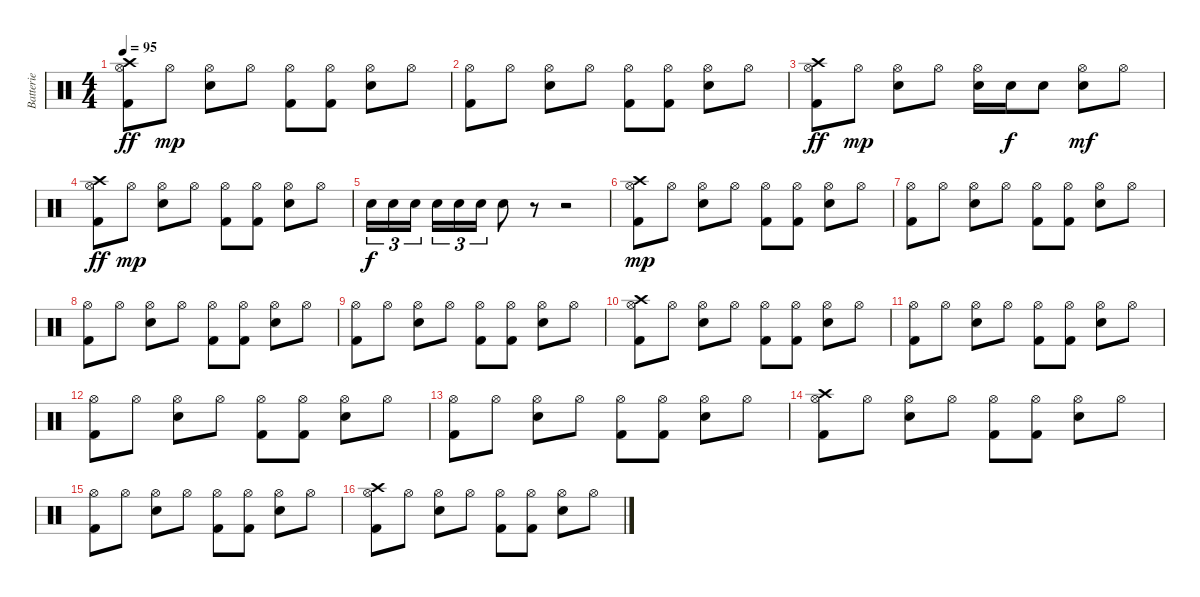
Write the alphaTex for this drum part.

\track ("Batterie" "Batterie") {instrument percussion}
\staff {score}
\articulation defaults
\ts (4 4)
\tempo 95
\clef neutral
\ks c
("Hi-Hat (open)" "Kick (hit) 2" "Crash high (hit)").8{dy ff} "Hi-Hat (open)".8{dy mp} ("Hi-Hat (open)" "Electric Snare (hit)").8 "Hi-Hat (open)".8 ("Hi-Hat (open)" "Kick (hit) 2").8 ("Hi-Hat (open)" "Kick (hit) 2").8 ("Hi-Hat (open)" "Electric Snare (hit)").8 "Hi-Hat (open)".8 |
("Hi-Hat (open)" "Kick (hit) 2").8 "Hi-Hat (open)".8 ("Hi-Hat (open)" "Electric Snare (hit)").8 "Hi-Hat (open)".8 ("Hi-Hat (open)" "Kick (hit) 2").8 ("Hi-Hat (open)" "Kick (hit) 2").8 ("Hi-Hat (open)" "Electric Snare (hit)").8 "Hi-Hat (open)".8 |
("Hi-Hat (open)" "Kick (hit) 2" "Crash high (hit)").8{dy ff} "Hi-Hat (open)".8{dy mp} ("Hi-Hat (open)" "Electric Snare (hit)").8 "Hi-Hat (open)".8 ("Hi-Hat (open)" "Electric Snare (hit)").16 "Electric Snare (hit)".16{dy f} "Electric Snare (hit)".8 ("Hi-Hat (open)" "Electric Snare (hit)").8{dy mf} "Hi-Hat (open)".8 |
("Hi-Hat (open)" "Kick (hit) 2" "Crash high (hit)").8{dy ff} "Hi-Hat (open)".8{dy mp} ("Hi-Hat (open)" "Electric Snare (hit)").8 "Hi-Hat (open)".8 ("Hi-Hat (open)" "Kick (hit) 2").8 ("Hi-Hat (open)" "Kick (hit) 2").8 ("Hi-Hat (open)" "Electric Snare (hit)").8 "Hi-Hat (open)".8 |
"Electric Snare (hit)".16{tu (3 2) dy f} "Electric Snare (hit)".16{tu (3 2)} "Electric Snare (hit)".16{tu (3 2)} "Electric Snare (hit)".16{tu (3 2)} "Electric Snare (hit)".16{tu (3 2)} "Electric Snare (hit)".16{tu (3 2)} "Electric Snare (hit)".8 r.8 r.2 |
("Hi-Hat (open)" "Kick (hit) 2" "Crash high (hit)").8{dy mp} "Hi-Hat (open)".8 ("Hi-Hat (open)" "Electric Snare (hit)").8 "Hi-Hat (open)".8 ("Hi-Hat (open)" "Kick (hit) 2").8 ("Hi-Hat (open)" "Kick (hit) 2").8 ("Hi-Hat (open)" "Electric Snare (hit)").8 "Hi-Hat (open)".8 |
("Hi-Hat (open)" "Kick (hit) 2").8 "Hi-Hat (open)".8 ("Hi-Hat (open)" "Electric Snare (hit)").8 "Hi-Hat (open)".8 ("Hi-Hat (open)" "Kick (hit) 2").8 ("Hi-Hat (open)" "Kick (hit) 2").8 ("Hi-Hat (open)" "Electric Snare (hit)").8 "Hi-Hat (open)".8 |
("Hi-Hat (open)" "Kick (hit) 2").8 "Hi-Hat (open)".8 ("Hi-Hat (open)" "Electric Snare (hit)").8 "Hi-Hat (open)".8 ("Hi-Hat (open)" "Kick (hit) 2").8 ("Hi-Hat (open)" "Kick (hit) 2").8 ("Hi-Hat (open)" "Electric Snare (hit)").8 "Hi-Hat (open)".8 |
("Hi-Hat (open)" "Kick (hit) 2").8 "Hi-Hat (open)".8 ("Hi-Hat (open)" "Electric Snare (hit)").8 "Hi-Hat (open)".8 ("Hi-Hat (open)" "Kick (hit) 2").8 ("Hi-Hat (open)" "Kick (hit) 2").8 ("Hi-Hat (open)" "Electric Snare (hit)").8 "Hi-Hat (open)".8 |
("Hi-Hat (open)" "Kick (hit) 2" "Crash high (hit)").8 "Hi-Hat (open)".8 ("Hi-Hat (open)" "Electric Snare (hit)").8 "Hi-Hat (open)".8 ("Hi-Hat (open)" "Kick (hit) 2").8 ("Hi-Hat (open)" "Kick (hit) 2").8 ("Hi-Hat (open)" "Electric Snare (hit)").8 "Hi-Hat (open)".8 |
("Hi-Hat (open)" "Kick (hit) 2").8 "Hi-Hat (open)".8 ("Hi-Hat (open)" "Electric Snare (hit)").8 "Hi-Hat (open)".8 ("Hi-Hat (open)" "Kick (hit) 2").8 ("Hi-Hat (open)" "Kick (hit) 2").8 ("Hi-Hat (open)" "Electric Snare (hit)").8 "Hi-Hat (open)".8 |
("Hi-Hat (open)" "Kick (hit) 2").8 "Hi-Hat (open)".8 ("Hi-Hat (open)" "Electric Snare (hit)").8 "Hi-Hat (open)".8 ("Hi-Hat (open)" "Kick (hit) 2").8 ("Hi-Hat (open)" "Kick (hit) 2").8 ("Hi-Hat (open)" "Electric Snare (hit)").8 "Hi-Hat (open)".8 |
("Hi-Hat (open)" "Kick (hit) 2").8 "Hi-Hat (open)".8 ("Hi-Hat (open)" "Electric Snare (hit)").8 "Hi-Hat (open)".8 ("Hi-Hat (open)" "Kick (hit) 2").8 ("Hi-Hat (open)" "Kick (hit) 2").8 ("Hi-Hat (open)" "Electric Snare (hit)").8 "Hi-Hat (open)".8 |
("Hi-Hat (open)" "Kick (hit) 2" "Crash high (hit)").8 "Hi-Hat (open)".8 ("Hi-Hat (open)" "Electric Snare (hit)").8 "Hi-Hat (open)".8 ("Hi-Hat (open)" "Kick (hit) 2").8 ("Hi-Hat (open)" "Kick (hit) 2").8 ("Hi-Hat (open)" "Electric Snare (hit)").8 "Hi-Hat (open)".8 |
("Hi-Hat (open)" "Kick (hit) 2").8 "Hi-Hat (open)".8 ("Hi-Hat (open)" "Electric Snare (hit)").8 "Hi-Hat (open)".8 ("Hi-Hat (open)" "Kick (hit) 2").8 ("Hi-Hat (open)" "Kick (hit) 2").8 ("Hi-Hat (open)" "Electric Snare (hit)").8 "Hi-Hat (open)".8 |
("Hi-Hat (open)" "Kick (hit) 2" "Crash high (hit)").8 "Hi-Hat (open)".8 ("Hi-Hat (open)" "Electric Snare (hit)").8 "Hi-Hat (open)".8 ("Hi-Hat (open)" "Kick (hit) 2").8 ("Hi-Hat (open)" "Kick (hit) 2").8 ("Hi-Hat (open)" "Electric Snare (hit)").8 "Hi-Hat (open)".8
